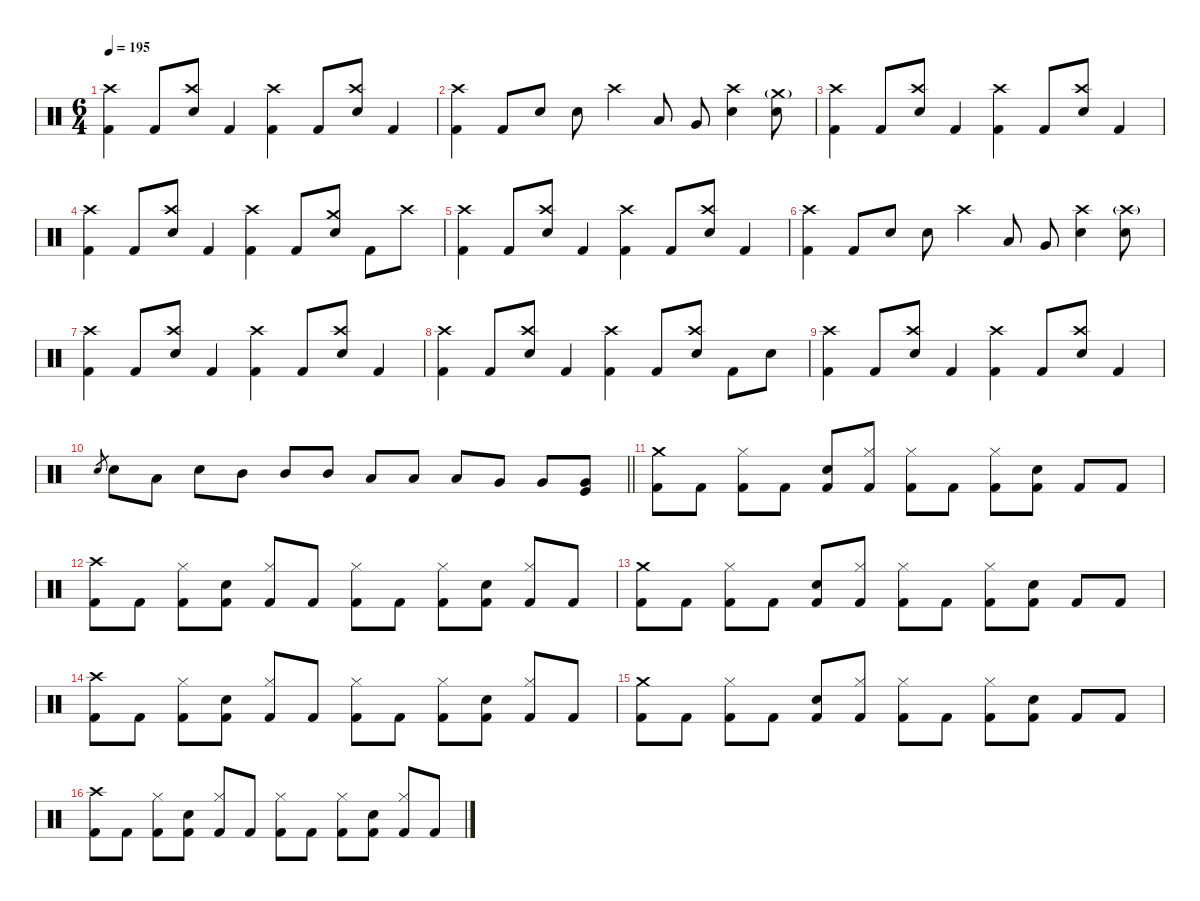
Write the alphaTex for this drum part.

\defaultSystemsLayout 4
\hideDynamics
\bracketExtendMode nobrackets
\singleTrackTrackNamePolicy hidden
\multiTrackTrackNamePolicy hidden
\firstSystemTrackNameMode fullname
\firstSystemTrackNameOrientation horizontal
\otherSystemsTrackNameOrientation horizontal
\track ("Drums" "drm.") {instrument percussion}
\staff {score}
\articulation defaults
\ts (6 4)
\tempo 195
\clef neutral
\ks c
("Crash high (hit)" "Kick (hit) 2").4{dy f beam Down} "Kick (hit) 2".8{beam Up} ("Crash high (hit)" "Snare (hit) 2").8{beam Down} "Kick (hit) 2".4{beam Up} ("Crash high (hit)" "Kick (hit) 2").4{beam Down} "Kick (hit) 2".8{beam Up} ("Crash high (hit)" "Snare (hit) 2").8{beam Down} "Kick (hit) 2".4{beam Up} |
("Crash high (hit)" "Kick (hit) 2").4{beam Down} "Kick (hit) 2".8{beam Up} "Snare (hit) 2".8{beam Down} "Snare (hit) 2".8{beam Down} "Crash high (hit)".4{beam Down} "Low Tom (hit)".8{beam Up} "Very Low Tom (hit)".8{beam Up} ("Crash high (hit)" "Snare (hit) 2").4{beam Down} ("Crash medium (hit)"{g} "Snare (hit) 2").8{beam Down} |
("Crash high (hit)" "Kick (hit) 2").4{beam Down} "Kick (hit) 2".8{beam Up} ("Crash high (hit)" "Snare (hit) 2").8{beam Down} "Kick (hit) 2".4{beam Up} ("Crash high (hit)" "Kick (hit) 2").4{beam Down} "Kick (hit) 2".8{beam Up} ("Crash high (hit)" "Snare (hit) 2").8{beam Down} "Kick (hit) 2".4{beam Up} |
("Crash high (hit)" "Kick (hit) 2").4{beam Down} "Kick (hit) 2".8{beam Up} ("Crash high (hit)" "Snare (hit) 2").8{beam Down} "Kick (hit) 2".4{beam Up} ("Crash high (hit)" "Kick (hit) 2").4{beam Down} "Kick (hit) 2".8{beam Up} ("Crash medium (hit)" "Snare (hit) 2").8{beam Down} "Kick (hit) 2".8{beam Down} "Crash high (hit)".8{beam Down} |
("Crash high (hit)" "Kick (hit) 2").4{beam Down} "Kick (hit) 2".8{beam Up} ("Crash high (hit)" "Snare (hit) 2").8{beam Down} "Kick (hit) 2".4{beam Up} ("Crash high (hit)" "Kick (hit) 2").4{beam Down} "Kick (hit) 2".8{beam Up} ("Crash high (hit)" "Snare (hit) 2").8{beam Down} "Kick (hit) 2".4{beam Up} |
("Crash high (hit)" "Kick (hit) 2").4{beam Down} "Kick (hit) 2".8{beam Up} "Snare (hit) 2".8{beam Down} "Snare (hit) 2".8{beam Down} "Crash high (hit)".4{beam Down} "Low Tom (hit)".8{beam Up} "Very Low Tom (hit)".8{beam Up} ("Crash high (hit)" "Snare (hit) 2").4{beam Down} ("Crash high (hit)"{g} "Snare (hit) 2").8{beam Down} |
("Crash high (hit)" "Kick (hit) 2").4{beam Down} "Kick (hit) 2".8{beam Up} ("Crash high (hit)" "Snare (hit) 2").8{beam Down} "Kick (hit) 2".4{beam Up} ("Crash high (hit)" "Kick (hit) 2").4{beam Down} "Kick (hit) 2".8{beam Up} ("Crash high (hit)" "Snare (hit) 2").8{beam Down} "Kick (hit) 2".4{beam Up} |
("Crash high (hit)" "Kick (hit) 2").4{beam Down} "Kick (hit) 2".8{beam Up} ("Crash high (hit)" "Snare (hit) 2").8{beam Down} "Kick (hit) 2".4{beam Up} ("Crash high (hit)" "Kick (hit) 2").4{beam Down} "Kick (hit) 2".8{beam Up} ("Crash high (hit)" "Snare (hit) 2").8{beam Down} "Kick (hit) 2".8{beam Down} "Snare (hit) 2".8{beam Down} |
("Crash high (hit)" "Kick (hit) 2").4{beam Down} "Kick (hit) 2".8{beam Up} ("Crash high (hit)" "Snare (hit) 2").8{beam Down} "Kick (hit) 2".4{beam Up} ("Crash high (hit)" "Kick (hit) 2").4{beam Down} "Kick (hit) 2".8{beam Up} ("Crash high (hit)" "Snare (hit) 2").8{beam Down} "Kick (hit) 2".4{beam Up} |
\barLineRight lightlight "Electric Snare (hit)".8{gr dy mf beam Up} "Snare (hit) 2".8{dy f beam Down} "Low Tom (hit)".8{beam Down} "Snare (hit) 2".8{beam Down} "Mid Tom (hit)".8{beam Up} "Mid Tom (hit)".8{beam Up} "Mid Tom (hit)".8{beam Up} "Low Tom (hit)".8{beam Up} "Low Tom (hit)".8{beam Up} "Low Tom (hit)".8{beam Up} "Very Low Tom (hit)".8{beam Up} "Very Low Tom (hit)".8{beam Up}
("Very Low Tom (hit)" "Kick (hit)").8{dy mf beam Up} |
("Crash medium (hit)" "Kick (hit) 2").8{dy f beam Down} "Kick (hit) 2".8{beam Down} ("Hi-Hat (closed)" "Kick (hit) 2").8{beam Down} "Kick (hit) 2".8{beam Up} ("Snare (hit) 2" "Kick (hit) 2").8{beam Up} ("Hi-Hat (closed)" "Kick (hit) 2").8{beam Up} ("Hi-Hat (closed)" "Kick (hit) 2").8{beam Down} "Kick (hit) 2".8{beam Down} ("Hi-Hat (closed)" "Kick (hit) 2").8{beam Down} ("Snare (hit) 2" "Kick (hit) 2").8{beam Up} "Kick (hit) 2".8{beam Up} "Kick (hit) 2".8{beam Up} |
("Crash high (hit)" "Kick (hit) 2").8{beam Down} "Kick (hit) 2".8{beam Down} ("Hi-Hat (closed)" "Kick (hit) 2").8{beam Down} ("Snare (hit) 2" "Kick (hit) 2").8{beam Up} ("Hi-Hat (closed)" "Kick (hit) 2").8{beam Up} "Kick (hit) 2".8{beam Up} ("Hi-Hat (closed)" "Kick (hit) 2").8{beam Down} "Kick (hit) 2".8{beam Down} ("Hi-Hat (closed)" "Kick (hit) 2").8{beam Down} ("Snare (hit) 2" "Kick (hit) 2").8{beam Up} ("Hi-Hat (closed)" "Kick (hit) 2").8{beam Up} "Kick (hit) 2".8{beam Up} |
("Crash medium (hit)" "Kick (hit) 2").8{beam Down} "Kick (hit) 2".8{beam Down} ("Hi-Hat (closed)" "Kick (hit) 2").8{beam Down} "Kick (hit) 2".8{beam Up} ("Snare (hit) 2" "Kick (hit) 2").8{beam Up} ("Hi-Hat (closed)" "Kick (hit) 2").8{beam Up} ("Hi-Hat (closed)" "Kick (hit) 2").8{beam Down} "Kick (hit) 2".8{beam Down} ("Hi-Hat (closed)" "Kick (hit) 2").8{beam Down} ("Snare (hit) 2" "Kick (hit) 2").8{beam Up} "Kick (hit) 2".8{beam Up} "Kick (hit) 2".8{beam Up} |
("Crash high (hit)" "Kick (hit) 2").8{beam Down} "Kick (hit) 2".8{beam Down} ("Hi-Hat (closed)" "Kick (hit) 2").8{beam Down} ("Snare (hit) 2" "Kick (hit) 2").8{beam Up} ("Hi-Hat (closed)" "Kick (hit) 2").8{beam Up} "Kick (hit) 2".8{beam Up} ("Hi-Hat (closed)" "Kick (hit) 2").8{beam Down} "Kick (hit) 2".8{beam Down} ("Hi-Hat (closed)" "Kick (hit) 2").8{beam Down} ("Snare (hit) 2" "Kick (hit) 2").8{beam Up} ("Hi-Hat (closed)" "Kick (hit) 2").8{beam Up} "Kick (hit) 2".8{beam Up} |
("Crash medium (hit)" "Kick (hit) 2").8{beam Down} "Kick (hit) 2".8{beam Down} ("Hi-Hat (closed)" "Kick (hit) 2").8{beam Down} "Kick (hit) 2".8{beam Up} ("Snare (hit) 2" "Kick (hit) 2").8{beam Up} ("Hi-Hat (closed)" "Kick (hit) 2").8{beam Up} ("Hi-Hat (closed)" "Kick (hit) 2").8{beam Down} "Kick (hit) 2".8{beam Down} ("Hi-Hat (closed)" "Kick (hit) 2").8{beam Down} ("Snare (hit) 2" "Kick (hit) 2").8{beam Up} "Kick (hit) 2".8{beam Up} "Kick (hit) 2".8{beam Up} |
("Crash high (hit)" "Kick (hit) 2").8{beam Down} "Kick (hit) 2".8{beam Down} ("Hi-Hat (closed)" "Kick (hit) 2").8{beam Down} ("Snare (hit) 2" "Kick (hit) 2").8{beam Up} ("Hi-Hat (closed)" "Kick (hit) 2").8{beam Up} "Kick (hit) 2".8{beam Up} ("Hi-Hat (closed)" "Kick (hit) 2").8{beam Down} "Kick (hit) 2".8{beam Down} ("Hi-Hat (closed)" "Kick (hit) 2").8{beam Down} ("Snare (hit) 2" "Kick (hit) 2").8{beam Up} ("Hi-Hat (closed)" "Kick (hit) 2").8{beam Up} "Kick (hit) 2".8{beam Up}
